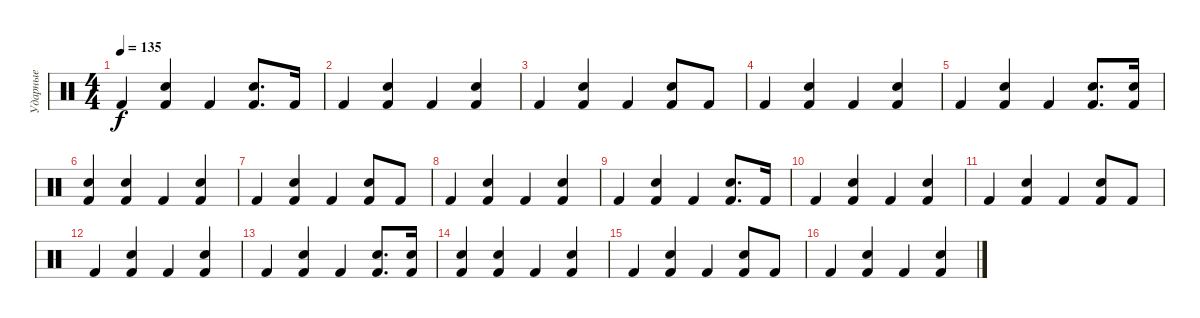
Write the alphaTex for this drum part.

\track ("Ударные" "Ударные") {instrument percussion}
\staff {score}
\articulation defaults
\ts (4 4)
\tempo 135
\clef neutral
\ks c "Kick (hit) 2".4{dy f}
("Hand Clap (hit)" "Kick (hit) 2").4 "Kick (hit) 2".4 ("Hand Clap (hit)" "Kick (hit) 2").8{d} "Kick (hit) 2".16 |
"Kick (hit) 2".4 ("Hand Clap (hit)" "Kick (hit) 2").4 "Kick (hit) 2".4 ("Hand Clap (hit)" "Kick (hit) 2").4 |
"Kick (hit) 2".4 ("Hand Clap (hit)" "Kick (hit) 2").4 "Kick (hit) 2".4 ("Hand Clap (hit)" "Kick (hit) 2").8 "Kick (hit) 2".8 |
"Kick (hit) 2".4 ("Hand Clap (hit)" "Kick (hit) 2").4 "Kick (hit) 2".4 ("Hand Clap (hit)" "Kick (hit) 2").4 |
"Kick (hit) 2".4 ("Hand Clap (hit)" "Kick (hit) 2").4 "Kick (hit) 2".4 ("Hand Clap (hit)" "Kick (hit) 2").8{d} ("Hand Clap (hit)" "Kick (hit) 2").16 |
("Hand Clap (hit)" "Kick (hit) 2").4 ("Hand Clap (hit)" "Kick (hit) 2").4 "Kick (hit) 2".4 ("Hand Clap (hit)" "Kick (hit) 2").4 |
"Kick (hit) 2".4 ("Hand Clap (hit)" "Kick (hit) 2").4 "Kick (hit) 2".4 ("Hand Clap (hit)" "Kick (hit) 2").8 "Kick (hit) 2".8 |
"Kick (hit) 2".4 ("Hand Clap (hit)" "Kick (hit) 2").4 "Kick (hit) 2".4 ("Hand Clap (hit)" "Kick (hit) 2").4 |
"Kick (hit) 2".4 ("Hand Clap (hit)" "Kick (hit) 2").4 "Kick (hit) 2".4 ("Hand Clap (hit)" "Kick (hit) 2").8{d} "Kick (hit) 2".16 |
"Kick (hit) 2".4 ("Hand Clap (hit)" "Kick (hit) 2").4 "Kick (hit) 2".4 ("Hand Clap (hit)" "Kick (hit) 2").4 |
"Kick (hit) 2".4 ("Hand Clap (hit)" "Kick (hit) 2").4 "Kick (hit) 2".4 ("Hand Clap (hit)" "Kick (hit) 2").8 "Kick (hit) 2".8 |
"Kick (hit) 2".4 ("Hand Clap (hit)" "Kick (hit) 2").4 "Kick (hit) 2".4 ("Hand Clap (hit)" "Kick (hit) 2").4 |
"Kick (hit) 2".4 ("Hand Clap (hit)" "Kick (hit) 2").4 "Kick (hit) 2".4 ("Hand Clap (hit)" "Kick (hit) 2").8{d} ("Hand Clap (hit)" "Kick (hit) 2").16 |
("Hand Clap (hit)" "Kick (hit) 2").4 ("Hand Clap (hit)" "Kick (hit) 2").4 "Kick (hit) 2".4 ("Hand Clap (hit)" "Kick (hit) 2").4 |
"Kick (hit) 2".4 ("Hand Clap (hit)" "Kick (hit) 2").4 "Kick (hit) 2".4 ("Hand Clap (hit)" "Kick (hit) 2").8 "Kick (hit) 2".8 |
"Kick (hit) 2".4 ("Hand Clap (hit)" "Kick (hit) 2").4 "Kick (hit) 2".4 ("Hand Clap (hit)" "Kick (hit) 2").4
